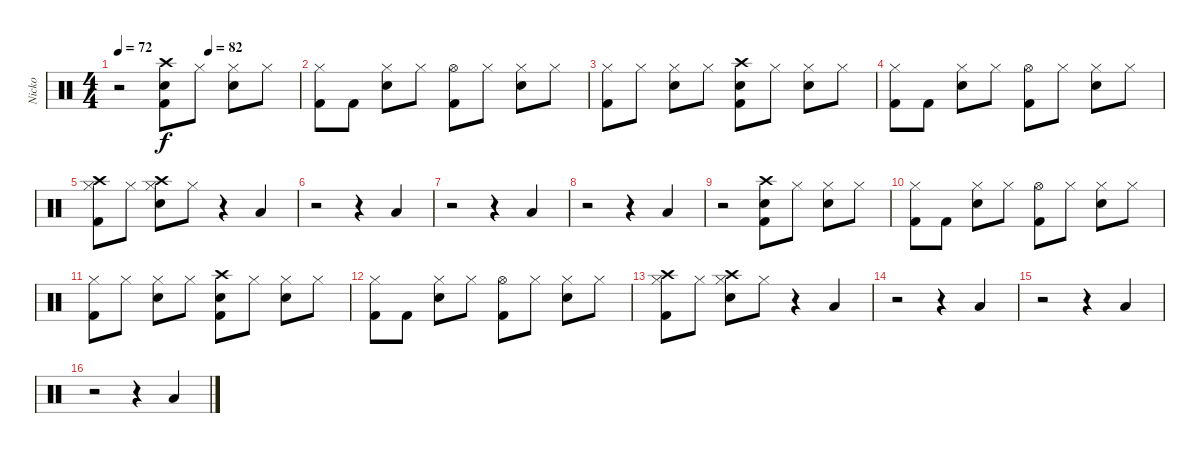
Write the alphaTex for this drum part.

\track ("Nicko" "Nicko") {instrument percussion}
\staff {score}
\articulation defaults
\ts (4 4)
\tempo 72
\tempo (82 0.5)
\clef neutral
\ks c
r.2{dy f} ("Kick (hit) 2" "Snare (hit) 2" "Crash high (hit)").8 "Hi-Hat (closed)".8 ("Snare (hit) 2" "Hi-Hat (closed)").8 "Hi-Hat (closed)".8 |
("Kick (hit) 2" "Hi-Hat (closed)").8 "Kick (hit) 2".8 ("Snare (hit) 2" "Hi-Hat (closed)").8 "Hi-Hat (closed)".8 ("Kick (hit) 2" "Hi-Hat (open)").8 "Hi-Hat (closed)".8 ("Snare (hit) 2" "Hi-Hat (closed)").8 "Hi-Hat (closed)".8 |
("Kick (hit) 2" "Hi-Hat (closed)").8 "Hi-Hat (closed)".8 ("Snare (hit) 2" "Hi-Hat (closed)").8 "Hi-Hat (closed)".8 ("Kick (hit) 2" "Snare (hit) 2" "Crash high (hit)").8 "Hi-Hat (closed)".8 ("Snare (hit) 2" "Hi-Hat (closed)").8 "Hi-Hat (closed)".8 |
("Kick (hit) 2" "Hi-Hat (closed)").8 "Kick (hit) 2".8 ("Snare (hit) 2" "Hi-Hat (closed)").8 "Hi-Hat (closed)".8 ("Kick (hit) 2" "Hi-Hat (open)").8 "Hi-Hat (closed)".8 ("Snare (hit) 2" "Hi-Hat (closed)").8 "Hi-Hat (closed)".8 |
("Kick (hit) 2" "Hi-Hat (closed)" "Crash high (hit)").8 "Hi-Hat (closed)".8 ("Snare (hit) 2" "Hi-Hat (closed)" "Crash high (hit)").8 "Hi-Hat (closed)".8 r.4 "Low Floor Tom (hit)".4 |
r.2 r.4 "Low Floor Tom (hit)".4 |
r.2 r.4 "Low Floor Tom (hit)".4 |
r.2 r.4 "Low Floor Tom (hit)".4 |
r.2 ("Kick (hit) 2" "Snare (hit) 2" "Crash high (hit)").8 "Hi-Hat (closed)".8 ("Snare (hit) 2" "Hi-Hat (closed)").8 "Hi-Hat (closed)".8 |
("Kick (hit) 2" "Hi-Hat (closed)").8 "Kick (hit) 2".8 ("Snare (hit) 2" "Hi-Hat (closed)").8 "Hi-Hat (closed)".8 ("Kick (hit) 2" "Hi-Hat (open)").8 "Hi-Hat (closed)".8 ("Snare (hit) 2" "Hi-Hat (closed)").8 "Hi-Hat (closed)".8 |
("Kick (hit) 2" "Hi-Hat (closed)").8 "Hi-Hat (closed)".8 ("Snare (hit) 2" "Hi-Hat (closed)").8 "Hi-Hat (closed)".8 ("Kick (hit) 2" "Snare (hit) 2" "Crash high (hit)").8 "Hi-Hat (closed)".8 ("Snare (hit) 2" "Hi-Hat (closed)").8 "Hi-Hat (closed)".8 |
("Kick (hit) 2" "Hi-Hat (closed)").8 "Kick (hit) 2".8 ("Snare (hit) 2" "Hi-Hat (closed)").8 "Hi-Hat (closed)".8 ("Kick (hit) 2" "Hi-Hat (open)").8 "Hi-Hat (closed)".8 ("Snare (hit) 2" "Hi-Hat (closed)").8 "Hi-Hat (closed)".8 |
("Kick (hit) 2" "Hi-Hat (closed)" "Crash high (hit)").8 "Hi-Hat (closed)".8 ("Snare (hit) 2" "Hi-Hat (closed)" "Crash high (hit)").8 "Hi-Hat (closed)".8 r.4 "Low Floor Tom (hit)".4 |
r.2 r.4 "Low Floor Tom (hit)".4 |
r.2 r.4 "Low Floor Tom (hit)".4 |
r.2 r.4 "Low Floor Tom (hit)".4
